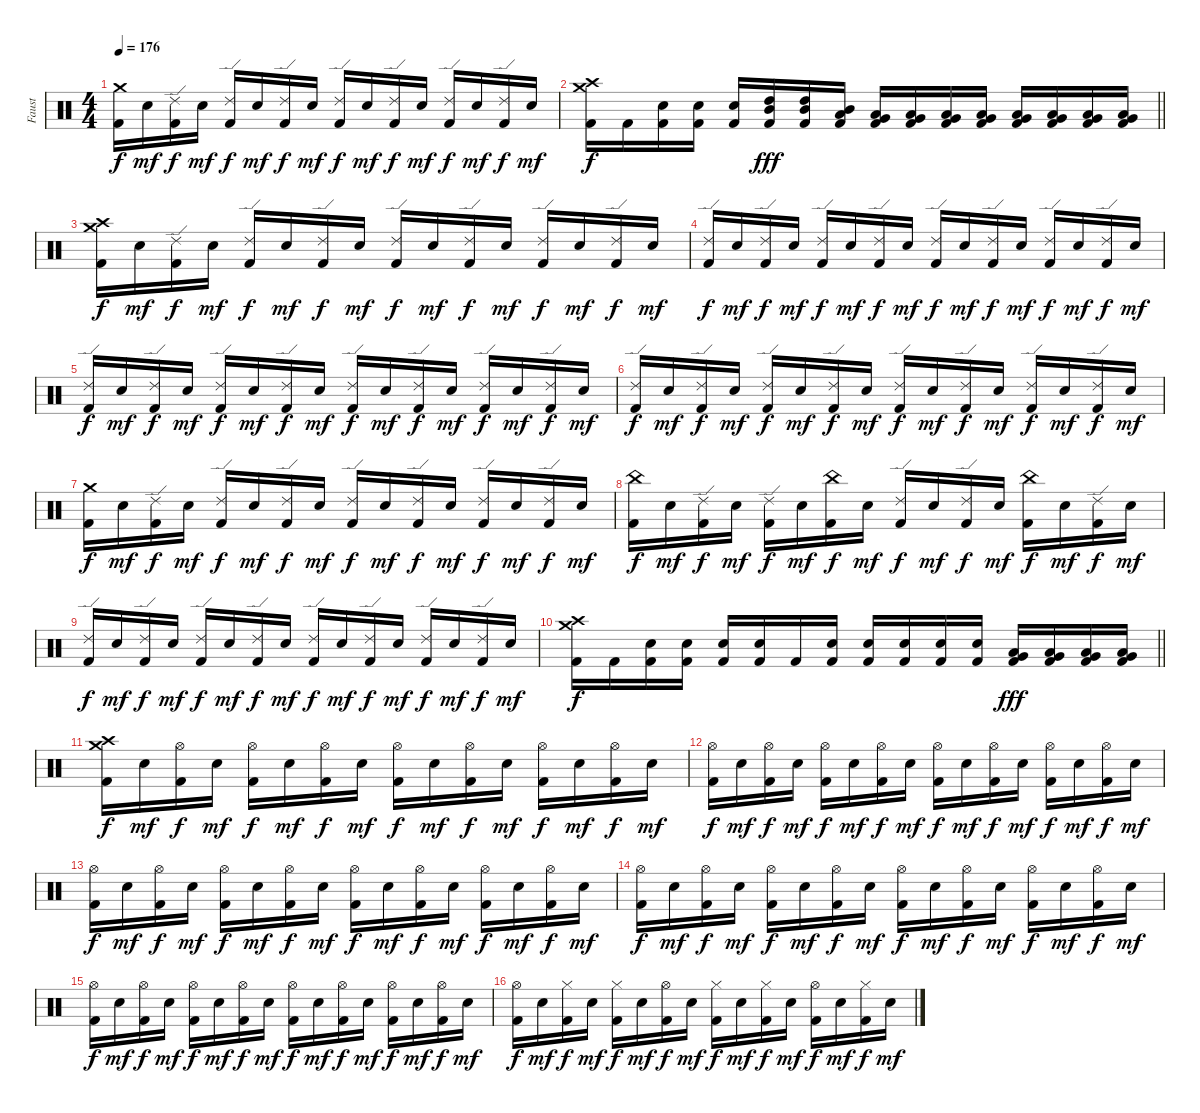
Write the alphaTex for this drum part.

\track ("Faust" "Faust") {instrument percussion}
\staff {score}
\articulation defaults
\ts (4 4)
\tempo 176
\clef neutral
\ks c
("Crash medium (hit)" "Kick (hit) 2").16{dy f} "Electric Snare (hit)".16{dy mf} ("Ride (edge) 2" "Kick (hit) 2").16{dy f} "Electric Snare (hit)".16{dy mf} ("Ride (edge) 2" "Kick (hit) 2").16{dy f} "Electric Snare (hit)".16{dy mf} ("Ride (edge) 2" "Kick (hit) 2").16{dy f} "Electric Snare (hit)".16{dy mf} ("Ride (edge) 2" "Kick (hit) 2").16{dy f} "Electric Snare (hit)".16{dy mf} ("Ride (edge) 2" "Kick (hit) 2").16{dy f} "Electric Snare (hit)".16{dy mf} ("Ride (edge) 2" "Kick (hit) 2").16{dy f} "Electric Snare (hit)".16{dy mf} ("Ride (edge) 2" "Kick (hit) 2").16{dy f} "Electric Snare (hit)".16{dy mf} |
\barLineRight lightlight
("Crash medium (hit)" "Crash high (hit)" "Kick (hit) 2").16{dy f} "Kick (hit) 2".16 ("Electric Snare (hit)" "Kick (hit) 2").16 ("Electric Snare (hit)" "Kick (hit) 2").16 ("Electric Snare (hit)" "Kick (hit) 2").16 ("High Tom (hit)" "Mid Tom (hit)" "Kick (hit) 2").16{dy fff} ("High Tom (hit)" "Mid Tom (hit)" "Kick (hit) 2").16 ("Mid Tom (hit)" "Low Tom (hit)" "Kick (hit) 2").16 ("Low Tom (hit)" "Very Low Tom (hit)" "Kick (hit) 2").16 ("Low Tom (hit)" "Very Low Tom (hit)" "Kick (hit) 2").16 ("Low Tom (hit)" "Very Low Tom (hit)" "Kick (hit) 2").16 ("Low Tom (hit)" "Very Low Tom (hit)" "Kick (hit) 2").16 ("Very Low Tom (hit)" "Low Floor Tom (hit)" "Kick (hit) 2").16 ("Very Low Tom (hit)" "Low Floor Tom (hit)" "Kick (hit) 2").16 ("Very Low Tom (hit)" "Low Floor Tom (hit)" "Kick (hit) 2").16 ("Very Low Tom (hit)" "Low Floor Tom (hit)" "Kick (hit) 2").16 |
\section ("" "")
("Crash high (hit)" "Crash medium (hit)" "Kick (hit) 2").16{dy f} "Electric Snare (hit)".16{dy mf} ("Ride (edge) 2" "Kick (hit) 2").16{dy f} "Electric Snare (hit)".16{dy mf} ("Ride (edge) 2" "Kick (hit) 2").16{dy f} "Electric Snare (hit)".16{dy mf} ("Ride (edge) 2" "Kick (hit) 2").16{dy f} "Electric Snare (hit)".16{dy mf} ("Ride (edge) 2" "Kick (hit) 2").16{dy f} "Electric Snare (hit)".16{dy mf} ("Ride (edge) 2" "Kick (hit) 2").16{dy f} "Electric Snare (hit)".16{dy mf} ("Ride (edge) 2" "Kick (hit) 2").16{dy f} "Electric Snare (hit)".16{dy mf} ("Ride (edge) 2" "Kick (hit) 2").16{dy f} "Electric Snare (hit)".16{dy mf} |
("Ride (edge) 2" "Kick (hit) 2").16{dy f} "Electric Snare (hit)".16{dy mf} ("Ride (edge) 2" "Kick (hit) 2").16{dy f} "Electric Snare (hit)".16{dy mf} ("Ride (edge) 2" "Kick (hit) 2").16{dy f} "Electric Snare (hit)".16{dy mf} ("Ride (edge) 2" "Kick (hit) 2").16{dy f} "Electric Snare (hit)".16{dy mf} ("Ride (edge) 2" "Kick (hit) 2").16{dy f} "Electric Snare (hit)".16{dy mf} ("Ride (edge) 2" "Kick (hit) 2").16{dy f} "Electric Snare (hit)".16{dy mf} ("Ride (edge) 2" "Kick (hit) 2").16{dy f} "Electric Snare (hit)".16{dy mf} ("Ride (edge) 2" "Kick (hit) 2").16{dy f} "Electric Snare (hit)".16{dy mf} |
("Ride (edge) 2" "Kick (hit) 2").16{dy f} "Electric Snare (hit)".16{dy mf} ("Ride (edge) 2" "Kick (hit) 2").16{dy f} "Electric Snare (hit)".16{dy mf} ("Ride (edge) 2" "Kick (hit) 2").16{dy f} "Electric Snare (hit)".16{dy mf} ("Ride (edge) 2" "Kick (hit) 2").16{dy f} "Electric Snare (hit)".16{dy mf} ("Ride (edge) 2" "Kick (hit) 2").16{dy f} "Electric Snare (hit)".16{dy mf} ("Ride (edge) 2" "Kick (hit) 2").16{dy f} "Electric Snare (hit)".16{dy mf} ("Ride (edge) 2" "Kick (hit) 2").16{dy f} "Electric Snare (hit)".16{dy mf} ("Ride (edge) 2" "Kick (hit) 2").16{dy f} "Electric Snare (hit)".16{dy mf} |
("Ride (edge) 2" "Kick (hit) 2").16{dy f} "Electric Snare (hit)".16{dy mf} ("Ride (edge) 2" "Kick (hit) 2").16{dy f} "Electric Snare (hit)".16{dy mf} ("Ride (edge) 2" "Kick (hit) 2").16{dy f} "Electric Snare (hit)".16{dy mf} ("Ride (edge) 2" "Kick (hit) 2").16{dy f} "Electric Snare (hit)".16{dy mf} ("Ride (edge) 2" "Kick (hit) 2").16{dy f} "Electric Snare (hit)".16{dy mf} ("Ride (edge) 2" "Kick (hit) 2").16{dy f} "Electric Snare (hit)".16{dy mf} ("Ride (edge) 2" "Kick (hit) 2").16{dy f} "Electric Snare (hit)".16{dy mf} ("Ride (edge) 2" "Kick (hit) 2").16{dy f} "Electric Snare (hit)".16{dy mf} |
("Crash medium (hit)" "Kick (hit) 2").16{dy f} "Electric Snare (hit)".16{dy mf} ("Ride (edge) 2" "Kick (hit) 2").16{dy f} "Electric Snare (hit)".16{dy mf} ("Ride (edge) 2" "Kick (hit) 2").16{dy f} "Electric Snare (hit)".16{dy mf} ("Ride (edge) 2" "Kick (hit) 2").16{dy f} "Electric Snare (hit)".16{dy mf} ("Ride (edge) 2" "Kick (hit) 2").16{dy f} "Electric Snare (hit)".16{dy mf} ("Ride (edge) 2" "Kick (hit) 2").16{dy f} "Electric Snare (hit)".16{dy mf} ("Ride (edge) 2" "Kick (hit) 2").16{dy f} "Electric Snare (hit)".16{dy mf} ("Ride (edge) 2" "Kick (hit) 2").16{dy f} "Electric Snare (hit)".16{dy mf} |
("China (hit)" "Kick (hit) 2").16{dy f} "Electric Snare (hit)".16{dy mf} ("Ride (edge) 2" "Kick (hit) 2").16{dy f} "Electric Snare (hit)".16{dy mf} ("Ride (edge) 2" "Kick (hit) 2").16{dy f} "Electric Snare (hit)".16{dy mf} ("China (hit)" "Kick (hit) 2").16{dy f} "Electric Snare (hit)".16{dy mf} ("Ride (edge) 2" "Kick (hit) 2").16{dy f} "Electric Snare (hit)".16{dy mf} ("Ride (edge) 2" "Kick (hit) 2").16{dy f} "Electric Snare (hit)".16{dy mf} ("China (hit)" "Kick (hit) 2").16{dy f} "Electric Snare (hit)".16{dy mf} ("Ride (edge) 2" "Kick (hit) 2").16{dy f} "Electric Snare (hit)".16{dy mf} |
("Ride (edge) 2" "Kick (hit) 2").16{dy f} "Electric Snare (hit)".16{dy mf} ("Ride (edge) 2" "Kick (hit) 2").16{dy f} "Electric Snare (hit)".16{dy mf} ("Ride (edge) 2" "Kick (hit) 2").16{dy f} "Electric Snare (hit)".16{dy mf} ("Ride (edge) 2" "Kick (hit) 2").16{dy f} "Electric Snare (hit)".16{dy mf} ("Ride (edge) 2" "Kick (hit) 2").16{dy f} "Electric Snare (hit)".16{dy mf} ("Ride (edge) 2" "Kick (hit) 2").16{dy f} "Electric Snare (hit)".16{dy mf} ("Ride (edge) 2" "Kick (hit) 2").16{dy f} "Electric Snare (hit)".16{dy mf} ("Ride (edge) 2" "Kick (hit) 2").16{dy f} "Electric Snare (hit)".16{dy mf} |
\barLineRight lightlight
("Crash high (hit)" "Crash medium (hit)" "Kick (hit) 2").16{dy f} "Kick (hit) 2".16 ("Electric Snare (hit)" "Kick (hit) 2").16 ("Electric Snare (hit)" "Kick (hit) 2").16 ("Electric Snare (hit)" "Kick (hit) 2").16 ("Electric Snare (hit)" "Kick (hit) 2").16 "Kick (hit) 2".16 ("Electric Snare (hit)" "Kick (hit) 2").16 ("Electric Snare (hit)" "Kick (hit) 2").16 ("Electric Snare (hit)" "Kick (hit) 2").16 ("Electric Snare (hit)" "Kick (hit) 2").16 ("Electric Snare (hit)" "Kick (hit) 2").16 ("Very Low Tom (hit)" "Low Tom (hit)" "Kick (hit) 2").16{dy fff} ("Very Low Tom (hit)" "Low Tom (hit)" "Kick (hit) 2").16 ("Low Floor Tom (hit)" "Very Low Tom (hit)" "Kick (hit) 2").16 ("Low Floor Tom (hit)" "Very Low Tom (hit)" "Kick (hit) 2").16 |
\section ("" "")
("Crash high (hit)" "Crash medium (hit)" "Kick (hit) 2").16{dy f} "Electric Snare (hit)".16{dy mf} ("Hi-Hat (open)" "Kick (hit) 2").16{dy f} "Electric Snare (hit)".16{dy mf} ("Hi-Hat (open)" "Kick (hit) 2").16{dy f} "Electric Snare (hit)".16{dy mf} ("Hi-Hat (open)" "Kick (hit) 2").16{dy f} "Electric Snare (hit)".16{dy mf} ("Hi-Hat (open)" "Kick (hit) 2").16{dy f} "Electric Snare (hit)".16{dy mf} ("Hi-Hat (open)" "Kick (hit) 2").16{dy f} "Electric Snare (hit)".16{dy mf} ("Hi-Hat (open)" "Kick (hit) 2").16{dy f} "Electric Snare (hit)".16{dy mf} ("Hi-Hat (open)" "Kick (hit) 2").16{dy f} "Electric Snare (hit)".16{dy mf} |
("Hi-Hat (open)" "Kick (hit) 2").16{dy f} "Electric Snare (hit)".16{dy mf} ("Hi-Hat (open)" "Kick (hit) 2").16{dy f} "Electric Snare (hit)".16{dy mf} ("Hi-Hat (open)" "Kick (hit) 2").16{dy f} "Electric Snare (hit)".16{dy mf} ("Hi-Hat (open)" "Kick (hit) 2").16{dy f} "Electric Snare (hit)".16{dy mf} ("Hi-Hat (open)" "Kick (hit) 2").16{dy f} "Electric Snare (hit)".16{dy mf} ("Hi-Hat (open)" "Kick (hit) 2").16{dy f} "Electric Snare (hit)".16{dy mf} ("Hi-Hat (open)" "Kick (hit) 2").16{dy f} "Electric Snare (hit)".16{dy mf} ("Hi-Hat (open)" "Kick (hit) 2").16{dy f} "Electric Snare (hit)".16{dy mf} |
("Hi-Hat (open)" "Kick (hit) 2").16{dy f} "Electric Snare (hit)".16{dy mf} ("Hi-Hat (open)" "Kick (hit) 2").16{dy f} "Electric Snare (hit)".16{dy mf} ("Hi-Hat (open)" "Kick (hit) 2").16{dy f} "Electric Snare (hit)".16{dy mf} ("Hi-Hat (open)" "Kick (hit) 2").16{dy f} "Electric Snare (hit)".16{dy mf} ("Hi-Hat (open)" "Kick (hit) 2").16{dy f} "Electric Snare (hit)".16{dy mf} ("Hi-Hat (open)" "Kick (hit) 2").16{dy f} "Electric Snare (hit)".16{dy mf} ("Hi-Hat (open)" "Kick (hit) 2").16{dy f} "Electric Snare (hit)".16{dy mf} ("Hi-Hat (open)" "Kick (hit) 2").16{dy f} "Electric Snare (hit)".16{dy mf} |
("Hi-Hat (open)" "Kick (hit) 2").16{dy f} "Electric Snare (hit)".16{dy mf} ("Hi-Hat (open)" "Kick (hit) 2").16{dy f} "Electric Snare (hit)".16{dy mf} ("Hi-Hat (open)" "Kick (hit) 2").16{dy f} "Electric Snare (hit)".16{dy mf} ("Hi-Hat (open)" "Kick (hit) 2").16{dy f} "Electric Snare (hit)".16{dy mf} ("Hi-Hat (open)" "Kick (hit) 2").16{dy f} "Electric Snare (hit)".16{dy mf} ("Hi-Hat (open)" "Kick (hit) 2").16{dy f} "Electric Snare (hit)".16{dy mf} ("Hi-Hat (open)" "Kick (hit) 2").16{dy f} "Electric Snare (hit)".16{dy mf} ("Hi-Hat (open)" "Kick (hit) 2").16{dy f} "Electric Snare (hit)".16{dy mf} |
("Hi-Hat (open)" "Kick (hit) 2").16{dy f} "Electric Snare (hit)".16{dy mf} ("Hi-Hat (open)" "Kick (hit) 2").16{dy f} "Electric Snare (hit)".16{dy mf} ("Hi-Hat (open)" "Kick (hit) 2").16{dy f} "Electric Snare (hit)".16{dy mf} ("Hi-Hat (open)" "Kick (hit) 2").16{dy f} "Electric Snare (hit)".16{dy mf} ("Hi-Hat (open)" "Kick (hit) 2").16{dy f} "Electric Snare (hit)".16{dy mf} ("Hi-Hat (open)" "Kick (hit) 2").16{dy f} "Electric Snare (hit)".16{dy mf} ("Hi-Hat (open)" "Kick (hit) 2").16{dy f} "Electric Snare (hit)".16{dy mf} ("Hi-Hat (open)" "Kick (hit) 2").16{dy f} "Electric Snare (hit)".16{dy mf} |
("Hi-Hat (open)" "Kick (hit) 2").16{dy f} "Electric Snare (hit)".16{dy mf} ("Hi-Hat (closed)" "Kick (hit) 2").16{dy f} "Electric Snare (hit)".16{dy mf} ("Hi-Hat (closed)" "Kick (hit) 2").16{dy f} "Electric Snare (hit)".16{dy mf} ("Hi-Hat (open)" "Kick (hit) 2").16{dy f} "Electric Snare (hit)".16{dy mf} ("Hi-Hat (closed)" "Kick (hit) 2").16{dy f} "Electric Snare (hit)".16{dy mf} ("Hi-Hat (closed)" "Kick (hit) 2").16{dy f} "Electric Snare (hit)".16{dy mf} ("Hi-Hat (open)" "Kick (hit) 2").16{dy f} "Electric Snare (hit)".16{dy mf} ("Hi-Hat (closed)" "Kick (hit) 2").16{dy f} "Electric Snare (hit)".16{dy mf}
